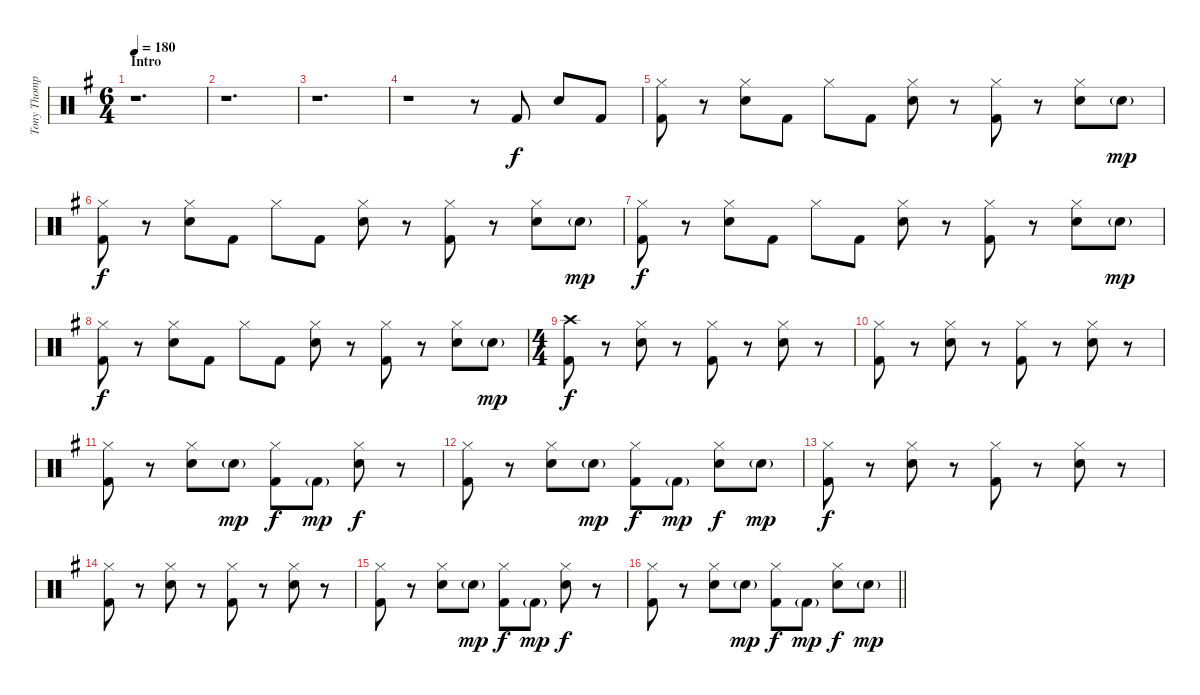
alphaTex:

\track ("Tony Thompson (Drums)" "Tony Thomp") {instrument percussion}
\staff {score}
\articulation defaults
\ts (6 4)
\section ("" "Intro")
\tempo 180
\clef neutral
\ks g
r.1{d dy f} |
r.1{d} |
r.1{d} |
r.1 r.8 "Kick (hit) 2".8 "Electric Snare (hit)".8 "Kick (hit) 2".8 |
("Hi-Hat (closed)" "Kick (hit) 2").8 r.8 ("Hi-Hat (closed)" "Electric Snare (hit)").8 "Kick (hit) 2".8 "Hi-Hat (closed)".8 "Kick (hit) 2".8 ("Hi-Hat (closed)" "Electric Snare (hit)").8 r.8 ("Hi-Hat (closed)" "Kick (hit) 2").8 r.8 ("Hi-Hat (closed)" "Electric Snare (hit)").8 "Electric Snare (hit)"{g}.8{dy mp} |
("Hi-Hat (closed)" "Kick (hit) 2").8{dy f} r.8 ("Hi-Hat (closed)" "Electric Snare (hit)").8 "Kick (hit) 2".8 "Hi-Hat (closed)".8 "Kick (hit) 2".8 ("Hi-Hat (closed)" "Electric Snare (hit)").8 r.8 ("Hi-Hat (closed)" "Kick (hit) 2").8 r.8 ("Hi-Hat (closed)" "Electric Snare (hit)").8 "Electric Snare (hit)"{g}.8{dy mp} |
("Hi-Hat (closed)" "Kick (hit) 2").8{dy f} r.8 ("Hi-Hat (closed)" "Electric Snare (hit)").8 "Kick (hit) 2".8 "Hi-Hat (closed)".8 "Kick (hit) 2".8 ("Hi-Hat (closed)" "Electric Snare (hit)").8 r.8 ("Hi-Hat (closed)" "Kick (hit) 2").8 r.8 ("Hi-Hat (closed)" "Electric Snare (hit)").8 "Electric Snare (hit)"{g}.8{dy mp} |
("Hi-Hat (closed)" "Kick (hit) 2").8{dy f} r.8 ("Hi-Hat (closed)" "Electric Snare (hit)").8 "Kick (hit) 2".8 "Hi-Hat (closed)".8 "Kick (hit) 2".8 ("Hi-Hat (closed)" "Electric Snare (hit)").8 r.8 ("Hi-Hat (closed)" "Kick (hit) 2").8 r.8 ("Hi-Hat (closed)" "Electric Snare (hit)").8 "Electric Snare (hit)"{g}.8{dy mp} |
\ts (4 4)
("Crash high (hit)" "Kick (hit) 2").8{dy f} r.8 ("Hi-Hat (closed)" "Electric Snare (hit)").8 r.8 ("Hi-Hat (closed)" "Kick (hit) 2").8 r.8 ("Hi-Hat (closed)" "Electric Snare (hit)").8 r.8 |
("Hi-Hat (closed)" "Kick (hit) 2").8 r.8 ("Hi-Hat (closed)" "Electric Snare (hit)").8 r.8 ("Hi-Hat (closed)" "Kick (hit) 2").8 r.8 ("Hi-Hat (closed)" "Electric Snare (hit)").8 r.8 |
("Hi-Hat (closed)" "Kick (hit) 2").8 r.8 ("Hi-Hat (closed)" "Electric Snare (hit)").8 "Electric Snare (hit)"{g}.8{dy mp} ("Hi-Hat (closed)" "Kick (hit) 2").8{dy f} "Kick (hit) 2"{g}.8{dy mp} ("Hi-Hat (closed)" "Electric Snare (hit)").8{dy f} r.8 |
("Hi-Hat (closed)" "Kick (hit) 2").8 r.8 ("Hi-Hat (closed)" "Electric Snare (hit)").8 "Electric Snare (hit)"{g}.8{dy mp} ("Hi-Hat (closed)" "Kick (hit) 2").8{dy f} "Kick (hit) 2"{g}.8{dy mp} ("Hi-Hat (closed)" "Electric Snare (hit)").8{dy f} "Electric Snare (hit)"{g}.8{dy mp} |
("Hi-Hat (closed)" "Kick (hit) 2").8{dy f} r.8 ("Hi-Hat (closed)" "Electric Snare (hit)").8 r.8 ("Hi-Hat (closed)" "Kick (hit) 2").8 r.8 ("Hi-Hat (closed)" "Electric Snare (hit)").8 r.8 |
("Hi-Hat (closed)" "Kick (hit) 2").8 r.8 ("Hi-Hat (closed)" "Electric Snare (hit)").8 r.8 ("Hi-Hat (closed)" "Kick (hit) 2").8 r.8 ("Hi-Hat (closed)" "Electric Snare (hit)").8 r.8 |
("Hi-Hat (closed)" "Kick (hit) 2").8 r.8 ("Hi-Hat (closed)" "Electric Snare (hit)").8 "Electric Snare (hit)"{g}.8{dy mp} ("Hi-Hat (closed)" "Kick (hit) 2").8{dy f} "Kick (hit) 2"{g}.8{dy mp} ("Hi-Hat (closed)" "Electric Snare (hit)").8{dy f} r.8 |
\barLineRight lightlight
("Hi-Hat (closed)" "Kick (hit) 2").8 r.8 ("Hi-Hat (closed)" "Electric Snare (hit)").8 "Electric Snare (hit)"{g}.8{dy mp} ("Hi-Hat (closed)" "Kick (hit) 2").8{dy f} "Kick (hit) 2"{g}.8{dy mp} ("Hi-Hat (closed)" "Electric Snare (hit)").8{dy f} "Electric Snare (hit)"{g}.8{dy mp}
